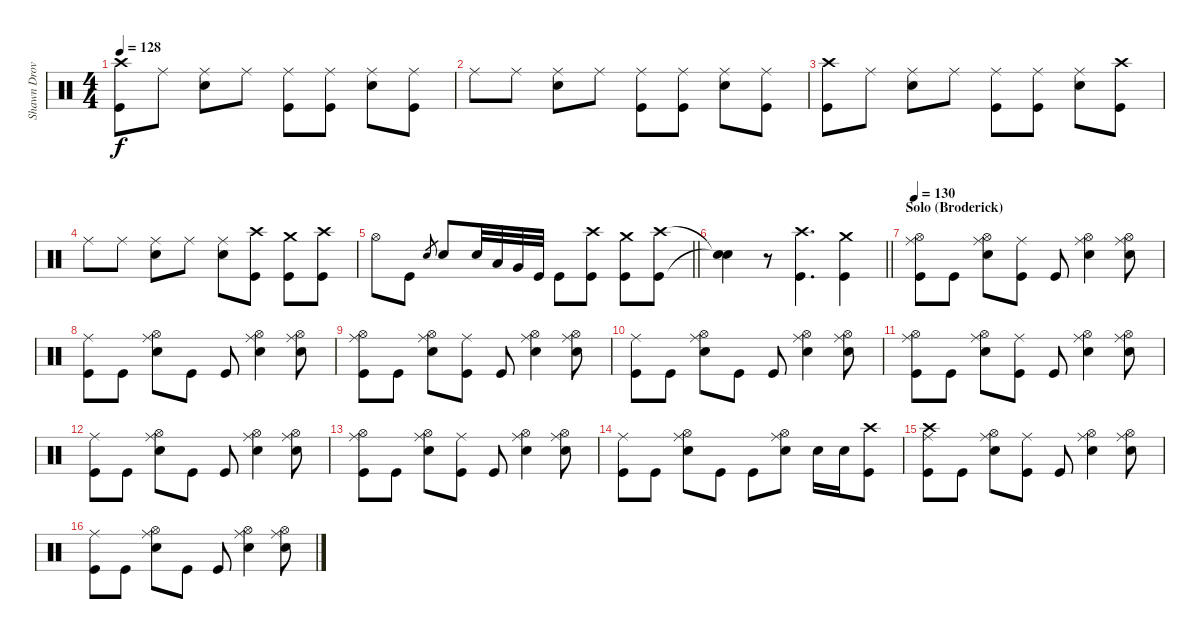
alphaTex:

\track ("Shawn Drover" "Shawn Drov") {instrument percussion}
\staff {score}
\articulation defaults
\ts (4 4)
\tempo 128
\clef neutral
\ks c
("Crash high (hit)" "Kick (hit)").8{dy f} "Ride (middle)".8 ("Ride (middle)" "Snare (hit) 2").8 "Ride (middle)".8 ("Ride (middle)" "Kick (hit)").8 ("Ride (middle)" "Kick (hit)").8 ("Ride (middle)" "Snare (hit) 2").8 ("Ride (middle)" "Kick (hit)").8 |
"Ride (middle)".8 "Ride (middle)".8 ("Ride (middle)" "Snare (hit) 2").8 "Ride (middle)".8 ("Ride (middle)" "Kick (hit)").8 ("Ride (middle)" "Kick (hit)").8 ("Ride (middle)" "Snare (hit) 2").8 ("Ride (middle)" "Kick (hit)").8 |
("Crash high (hit)" "Kick (hit)").8 "Ride (middle)".8 ("Ride (middle)" "Snare (hit) 2").8 "Ride (middle)".8 ("Ride (middle)" "Kick (hit)").8 ("Ride (middle)" "Kick (hit)").8 ("Ride (middle)" "Snare (hit) 2").8 ("Crash high (hit)" "Kick (hit)").8 |
"Ride (middle)".8 "Ride (middle)".8 ("Ride (middle)" "Snare (hit) 2").8 "Ride (middle)".8 ("Ride (middle)" "Snare (hit) 2").8 ("Crash high (hit)" "Kick (hit)").8 ("Crash medium (hit)" "Kick (hit)").8 ("Crash high (hit)" "Kick (hit)").8 |
\barLineRight lightlight "Hi-Hat (open)".8 "Kick (hit)".8 "Snare (hit) 2".8{gr} "Snare (hit) 2".8 "Snare (hit) 2".32 "Low Tom (hit)".32 "Very Low Tom (hit)".32 "Kick (hit)".32 "Kick (hit)".8
("Crash high (hit)" "Kick (hit)").8 ("Crash medium (hit)" "Kick (hit)").8 ("Crash high (hit)" "Kick (hit)").8 |
\barLineRight lightlight
("Snare (hit)"{t} "Snare (hit)"{t}).4 r.8 ("Crash high (hit)" "Kick (hit)").4{d} ("Crash medium (hit)" "Kick (hit)").4 |
\section ("" "Solo (Broderick)")
\tempo 130
("Hi-Hat (open)" "Ride (middle)" "Kick (hit)").8 "Kick (hit)".8 ("Ride (middle)" "Hi-Hat (open)" "Snare (hit) 2").8 ("Ride (middle)" "Kick (hit)").8 "Kick (hit)".8 ("Ride (middle)" "Hi-Hat (open)" "Snare (hit) 2").4 ("Ride (middle)" "Hi-Hat (open)" "Snare (hit) 2").8 |
("Ride (middle)" "Kick (hit)").8 "Kick (hit)".8 ("Ride (middle)" "Hi-Hat (open)" "Snare (hit) 2").8 "Kick (hit)".8 "Kick (hit)".8 ("Ride (middle)" "Hi-Hat (open)" "Snare (hit) 2").4 ("Ride (middle)" "Hi-Hat (open)" "Snare (hit) 2").8 |
("Hi-Hat (open)" "Ride (middle)" "Kick (hit)").8 "Kick (hit)".8 ("Ride (middle)" "Hi-Hat (open)" "Snare (hit) 2").8 ("Ride (middle)" "Kick (hit)").8 "Kick (hit)".8 ("Ride (middle)" "Hi-Hat (open)" "Snare (hit) 2").4 ("Ride (middle)" "Hi-Hat (open)" "Snare (hit) 2").8 |
("Ride (middle)" "Kick (hit)").8 "Kick (hit)".8 ("Ride (middle)" "Hi-Hat (open)" "Snare (hit) 2").8 "Kick (hit)".8 "Kick (hit)".8 ("Ride (middle)" "Hi-Hat (open)" "Snare (hit) 2").4 ("Ride (middle)" "Hi-Hat (open)" "Snare (hit) 2").8 |
("Hi-Hat (open)" "Ride (middle)" "Kick (hit)").8 "Kick (hit)".8 ("Ride (middle)" "Hi-Hat (open)" "Snare (hit) 2").8 ("Ride (middle)" "Kick (hit)").8 "Kick (hit)".8 ("Ride (middle)" "Hi-Hat (open)" "Snare (hit) 2").4 ("Ride (middle)" "Hi-Hat (open)" "Snare (hit) 2").8 |
("Ride (middle)" "Kick (hit)").8 "Kick (hit)".8 ("Ride (middle)" "Hi-Hat (open)" "Snare (hit) 2").8 "Kick (hit)".8 "Kick (hit)".8 ("Ride (middle)" "Hi-Hat (open)" "Snare (hit) 2").4 ("Ride (middle)" "Hi-Hat (open)" "Snare (hit) 2").8 |
("Hi-Hat (open)" "Ride (middle)" "Kick (hit)").8 "Kick (hit)".8 ("Ride (middle)" "Hi-Hat (open)" "Snare (hit) 2").8 ("Ride (middle)" "Kick (hit)").8 "Kick (hit)".8 ("Ride (middle)" "Hi-Hat (open)" "Snare (hit) 2").4 ("Ride (middle)" "Hi-Hat (open)" "Snare (hit) 2").8 |
("Ride (middle)" "Kick (hit)").8 "Kick (hit)".8 ("Ride (middle)" "Hi-Hat (open)" "Snare (hit) 2").8 "Kick (hit)".8 "Kick (hit)".8 ("Ride (middle)" "Hi-Hat (open)" "Snare (hit) 2").8 "Snare (hit) 2".16 "Snare (hit) 2".16 ("Crash high (hit)" "Kick (hit)").8 |
("Crash high (hit)" "Ride (middle)" "Kick (hit)").8 "Kick (hit)".8 ("Ride (middle)" "Hi-Hat (open)" "Snare (hit) 2").8 ("Ride (middle)" "Kick (hit)").8 "Kick (hit)".8 ("Ride (middle)" "Hi-Hat (open)" "Snare (hit) 2").4 ("Ride (middle)" "Hi-Hat (open)" "Snare (hit) 2").8 |
("Ride (middle)" "Kick (hit)").8 "Kick (hit)".8 ("Ride (middle)" "Hi-Hat (open)" "Snare (hit) 2").8 "Kick (hit)".8 "Kick (hit)".8 ("Ride (middle)" "Hi-Hat (open)" "Snare (hit) 2").4 ("Ride (middle)" "Hi-Hat (open)" "Snare (hit) 2").8
